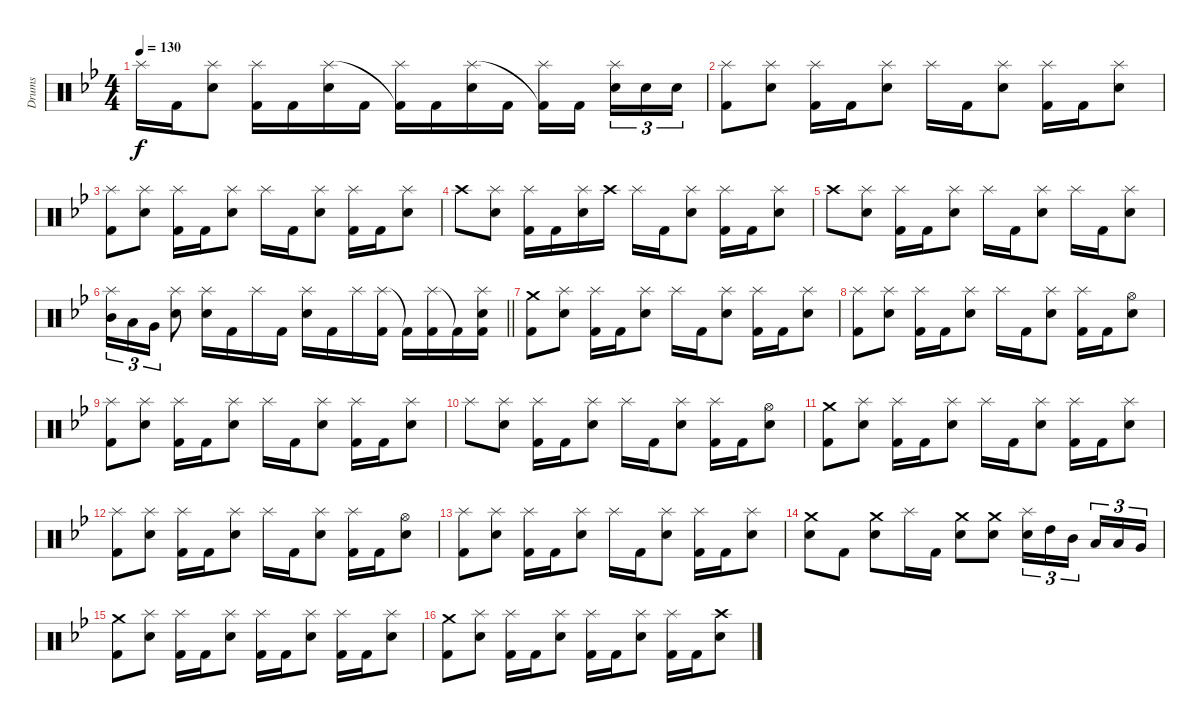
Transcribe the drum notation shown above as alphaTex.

\track ("Drums" "Drums") {instrument percussion}
\staff {score}
\articulation defaults
\ts (4 4)
\tempo 130
\clef neutral
\ks bb "Splash (hit)".16{dy f} "Kick (hit) 2".16
("Electric Snare (hit)" "Splash (hit)").8 ("Splash (hit)" "Kick (hit) 2").16 "Kick (hit) 2".16 ("Electric Snare (hit)" "Splash (hit)").16 "Kick (hit) 2".16 ("Splash (hit)" "Kick (hit) 2"{t}).16 "Kick (hit) 2".16 ("Electric Snare (hit)" "Splash (hit)").16 "Kick (hit) 2".16 ("Splash (hit)" "Kick (hit) 2"{t}).16 "Kick (hit) 2".16{beam splitsecondary} ("Electric Snare (hit)" "Splash (hit)").16{tu (3 2)} "Electric Snare (hit)".16{tu (3 2) volume 11} "Electric Snare (hit)".16{tu (3 2) volume 10} |
("Splash (hit)" "Kick (hit) 2").8{volume 12} ("Electric Snare (hit)" "Splash (hit)").8 ("Splash (hit)" "Kick (hit) 2").16 "Kick (hit) 2".16 ("Electric Snare (hit)" "Splash (hit)").8 "Splash (hit)".16 "Kick (hit) 2".16 ("Electric Snare (hit)" "Splash (hit)").8 ("Splash (hit)" "Kick (hit) 2").16 "Kick (hit) 2".16 ("Electric Snare (hit)" "Splash (hit)").8 |
("Splash (hit)" "Kick (hit) 2").8 ("Electric Snare (hit)" "Splash (hit)").8 ("Splash (hit)" "Kick (hit) 2").16 "Kick (hit) 2".16 ("Electric Snare (hit)" "Splash (hit)").8 "Splash (hit)".16 "Kick (hit) 2".16 ("Electric Snare (hit)" "Splash (hit)").8 ("Splash (hit)" "Kick (hit) 2").16 "Kick (hit) 2".16 ("Electric Snare (hit)" "Splash (hit)").8 |
"Crash high (hit)".8 ("Electric Snare (hit)" "Splash (hit)").8 ("Splash (hit)" "Kick (hit) 2").16 "Kick (hit) 2".16 ("Electric Snare (hit)" "Splash (hit)").16 "Crash high (hit)".16 "Splash (hit)".16 "Kick (hit) 2".16 ("Electric Snare (hit)" "Splash (hit)").8 ("Splash (hit)" "Kick (hit) 2").16 "Kick (hit) 2".16 ("Electric Snare (hit)" "Splash (hit)").8 |
"Crash high (hit)".8 ("Electric Snare (hit)" "Splash (hit)").8 ("Splash (hit)" "Kick (hit) 2").16 "Kick (hit) 2".16 ("Electric Snare (hit)" "Splash (hit)").8 "Splash (hit)".16 "Kick (hit) 2".16 ("Electric Snare (hit)" "Splash (hit)").8 "Splash (hit)".16 "Kick (hit) 2".16 ("Electric Snare (hit)" "Splash (hit)").8 |
\barLineRight lightlight
("Splash (hit)" "Mid Tom (hit)").16{tu (3 2)} "Low Tom (hit)".16{tu (3 2)} "Very Low Tom (hit)".16{tu (3 2)} ("Splash (hit)" "Electric Snare (hit)").8 ("Splash (hit)" "Electric Snare (hit)").16 "Kick (hit) 2".16 "Splash (hit)".16 "Kick (hit) 2".16 ("Splash (hit)" "Electric Snare (hit)").16 "Kick (hit) 2".16 "Splash (hit)".16 ("Splash (hit)" "Kick (hit) 2").16 "Kick (hit) 2"{t}.16 ("Splash (hit)" "Kick (hit) 2").16 "Kick (hit) 2"{t}.16 ("Splash (hit)" "Kick (hit) 2" "Electric Snare (hit)").16 |
("Crash medium (hit)" "Kick (hit) 2").8 ("Electric Snare (hit)" "Splash (hit)").8 ("Splash (hit)" "Kick (hit) 2").16 "Kick (hit) 2".16 ("Electric Snare (hit)" "Splash (hit)").8 "Splash (hit)".16 "Kick (hit) 2".16 ("Electric Snare (hit)" "Splash (hit)").8 ("Splash (hit)" "Kick (hit) 2").16 "Kick (hit) 2".16 ("Electric Snare (hit)" "Splash (hit)").8 |
("Splash (hit)" "Kick (hit) 2").8 ("Electric Snare (hit)" "Splash (hit)").8 ("Splash (hit)" "Kick (hit) 2").16 "Kick (hit) 2".16 ("Electric Snare (hit)" "Splash (hit)").8 "Splash (hit)".16 "Kick (hit) 2".16 ("Electric Snare (hit)" "Splash (hit)").8 ("Splash (hit)" "Kick (hit) 2").16 "Kick (hit) 2".16 ("Electric Snare (hit)" "Hi-Hat (open)").8 |
("Splash (hit)" "Kick (hit) 2").8 ("Electric Snare (hit)" "Splash (hit)").8 ("Splash (hit)" "Kick (hit) 2").16 "Kick (hit) 2".16 ("Electric Snare (hit)" "Splash (hit)").8 "Splash (hit)".16 "Kick (hit) 2".16 ("Electric Snare (hit)" "Splash (hit)").8 ("Splash (hit)" "Kick (hit) 2").16 "Kick (hit) 2".16 ("Electric Snare (hit)" "Splash (hit)").8 |
"Splash (hit)".8 ("Electric Snare (hit)" "Splash (hit)").8 ("Splash (hit)" "Kick (hit) 2").16 "Kick (hit) 2".16 ("Electric Snare (hit)" "Splash (hit)").8 "Splash (hit)".16 "Kick (hit) 2".16 ("Electric Snare (hit)" "Splash (hit)").8 ("Splash (hit)" "Kick (hit) 2").16 "Kick (hit) 2".16 ("Electric Snare (hit)" "Hi-Hat (open)").8 |
("Crash medium (hit)" "Kick (hit) 2").8 ("Electric Snare (hit)" "Splash (hit)").8 ("Splash (hit)" "Kick (hit) 2").16 "Kick (hit) 2".16 ("Electric Snare (hit)" "Splash (hit)").8 "Splash (hit)".16 "Kick (hit) 2".16 ("Electric Snare (hit)" "Splash (hit)").8 ("Splash (hit)" "Kick (hit) 2").16 "Kick (hit) 2".16 ("Electric Snare (hit)" "Splash (hit)").8 |
("Splash (hit)" "Kick (hit) 2").8 ("Electric Snare (hit)" "Splash (hit)").8 ("Splash (hit)" "Kick (hit) 2").16 "Kick (hit) 2".16 ("Electric Snare (hit)" "Splash (hit)").8 "Splash (hit)".16 "Kick (hit) 2".16 ("Electric Snare (hit)" "Splash (hit)").8 ("Splash (hit)" "Kick (hit) 2").16 "Kick (hit) 2".16 ("Electric Snare (hit)" "Hi-Hat (open)").8 |
("Splash (hit)" "Kick (hit) 2").8 ("Electric Snare (hit)" "Splash (hit)").8 ("Splash (hit)" "Kick (hit) 2").16 "Kick (hit) 2".16 ("Electric Snare (hit)" "Splash (hit)").8 "Splash (hit)".16 "Kick (hit) 2".16 ("Electric Snare (hit)" "Splash (hit)").8 ("Splash (hit)" "Kick (hit) 2").16 "Kick (hit) 2".16 ("Electric Snare (hit)" "Splash (hit)").8 |
("Crash medium (hit)" "Electric Snare (hit)").8 "Kick (hit) 2".8 ("Crash medium (hit)" "Electric Snare (hit)").8 "Splash (hit)".16 "Kick (hit) 2".16 ("Crash medium (hit)" "Electric Snare (hit)").8 ("Crash medium (hit)" "Electric Snare (hit)").8 ("Electric Snare (hit)" "Splash (hit)").16{tu (3 2)} "High Tom (hit)".16{tu (3 2)} "Mid Tom (hit)".16{tu (3 2) beam splitsecondary} "Low Tom (hit)".16{tu (3 2)} "Low Tom (hit)".16{tu (3 2)} "Very Low Tom (hit)".16{tu (3 2)} |
("Crash medium (hit)" "Kick (hit) 2").8 ("Electric Snare (hit)" "Splash (hit)").8 ("Splash (hit)" "Kick (hit) 2").16 "Kick (hit) 2".16 ("Electric Snare (hit)" "Splash (hit)").8 ("Splash (hit)" "Kick (hit) 2").16 "Kick (hit) 2".16 ("Electric Snare (hit)" "Splash (hit)").8 ("Splash (hit)" "Kick (hit) 2").16 "Kick (hit) 2".16 ("Electric Snare (hit)" "Splash (hit)").8 |
("Crash medium (hit)" "Kick (hit) 2").8 ("Electric Snare (hit)" "Splash (hit)").8 ("Splash (hit)" "Kick (hit) 2").16 "Kick (hit) 2".16 ("Electric Snare (hit)" "Splash (hit)").8 ("Splash (hit)" "Kick (hit) 2").16 "Kick (hit) 2".16 ("Electric Snare (hit)" "Splash (hit)").8 ("Splash (hit)" "Kick (hit) 2").16 "Kick (hit) 2".16 ("Electric Snare (hit)" "Crash high (hit)").8
